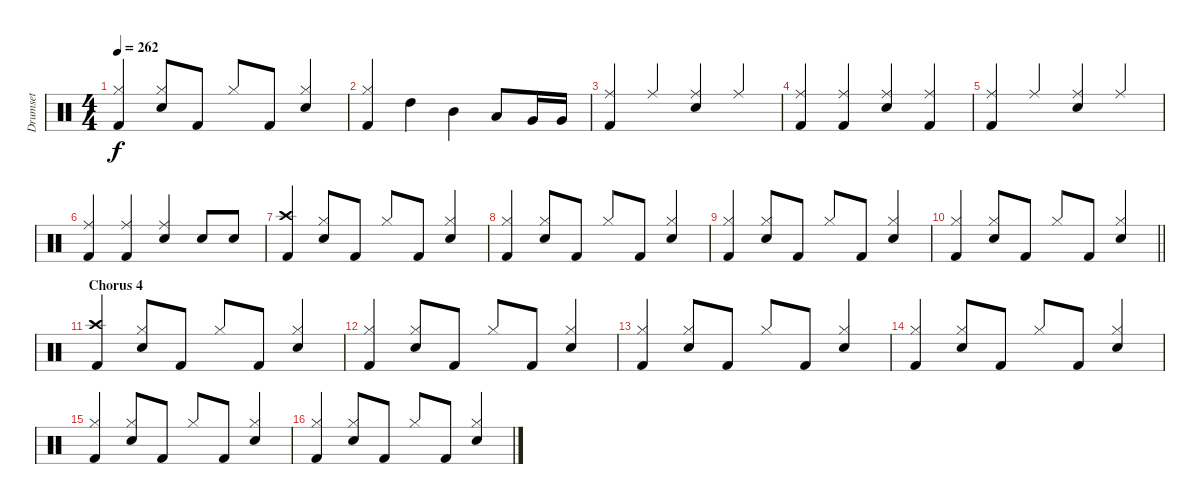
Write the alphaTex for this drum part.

\track ("Drumset" "Drumset") {instrument percussion}
\staff {score}
\articulation defaults
\ts (4 4)
\tempo 262
\clef neutral
\ks c
("Hi-Hat (closed)" "Kick (hit) 2").4{dy f beam Up} ("Hi-Hat (closed)" "Snare (hit) 2").8{beam Up} "Kick (hit) 2".8{beam Up} "Hi-Hat (closed)".8{beam Up} "Kick (hit) 2".8{beam Up} ("Snare (hit) 2" "Hi-Hat (closed)").4{beam Up} |
("Hi-Hat (closed)" "Kick (hit) 2").4{beam Up} "High Tom (hit)".4 "Mid Tom (hit)".4 "Low Tom (hit)".8 "Very Low Tom (hit)".16 "Very Low Tom (hit)".16 |
("Ride (middle)" "Kick (hit) 2").4{beam Up} "Ride (middle)".4{beam Up} ("Ride (middle)" "Snare (hit) 2").4{beam Up} "Ride (middle)".4{beam Up} |
("Ride (middle)" "Kick (hit) 2").4{beam Up} ("Ride (middle)" "Kick (hit) 2").4{beam Up} ("Ride (middle)" "Snare (hit) 2").4{beam Up} ("Ride (middle)" "Kick (hit) 2").4{beam Up} |
("Ride (middle)" "Kick (hit) 2").4{beam Up} "Ride (middle)".4{beam Up} ("Ride (middle)" "Snare (hit) 2").4{beam Up} "Ride (middle)".4{beam Up} |
("Ride (middle)" "Kick (hit) 2").4{beam Up} ("Ride (middle)" "Kick (hit) 2").4{beam Up} ("Ride (middle)" "Snare (hit) 2").4{beam Up} "Snare (hit) 2".8{beam Up} "Snare (hit) 2".8{beam Up} |
("Kick (hit) 2" "Crash high (hit)").4{beam Up} ("Hi-Hat (closed)" "Snare (hit) 2").8{beam Up} "Kick (hit) 2".8{beam Up} "Hi-Hat (closed)".8{beam Up} "Kick (hit) 2".8{beam Up} ("Snare (hit) 2" "Hi-Hat (closed)").4{beam Up} |
("Hi-Hat (closed)" "Kick (hit) 2").4{beam Up} ("Hi-Hat (closed)" "Snare (hit) 2").8{beam Up} "Kick (hit) 2".8{beam Up} "Hi-Hat (closed)".8{beam Up} "Kick (hit) 2".8{beam Up} ("Snare (hit) 2" "Hi-Hat (closed)").4{beam Up} |
("Hi-Hat (closed)" "Kick (hit) 2").4{beam Up} ("Hi-Hat (closed)" "Snare (hit) 2").8{beam Up} "Kick (hit) 2".8{beam Up} "Hi-Hat (closed)".8{beam Up} "Kick (hit) 2".8{beam Up} ("Snare (hit) 2" "Hi-Hat (closed)").4{beam Up} |
\barLineRight lightlight
("Hi-Hat (closed)" "Kick (hit) 2").4{beam Up} ("Hi-Hat (closed)" "Snare (hit) 2").8{beam Up} "Kick (hit) 2".8{beam Up} "Hi-Hat (closed)".8{beam Up} "Kick (hit) 2".8{beam Up} ("Snare (hit) 2" "Hi-Hat (closed)").4{beam Up} |
\section ("" "Chorus 4")
("Crash high (hit)" "Kick (hit) 2").4{beam Up} ("Snare (hit) 2" "Hi-Hat (closed)").8{beam Up} "Kick (hit) 2".8{beam Up} "Hi-Hat (closed)".8{beam Up} "Kick (hit) 2".8{beam Up} ("Snare (hit) 2" "Hi-Hat (closed)").4{beam Up} |
("Hi-Hat (closed)" "Kick (hit) 2").4{beam Up} ("Hi-Hat (closed)" "Snare (hit) 2").8{beam Up} "Kick (hit) 2".8{beam Up} "Hi-Hat (closed)".8{beam Up} "Kick (hit) 2".8{beam Up} ("Snare (hit) 2" "Hi-Hat (closed)").4{beam Up} |
("Hi-Hat (closed)" "Kick (hit) 2").4{beam Up} ("Hi-Hat (closed)" "Snare (hit) 2").8{beam Up} "Kick (hit) 2".8{beam Up} "Hi-Hat (closed)".8{beam Up} "Kick (hit) 2".8{beam Up} ("Snare (hit) 2" "Hi-Hat (closed)").4{beam Up} |
("Hi-Hat (closed)" "Kick (hit) 2").4{beam Up} ("Hi-Hat (closed)" "Snare (hit) 2").8{beam Up} "Kick (hit) 2".8{beam Up} "Hi-Hat (closed)".8{beam Up} "Kick (hit) 2".8{beam Up} ("Snare (hit) 2" "Hi-Hat (closed)").4{beam Up} |
("Hi-Hat (closed)" "Kick (hit) 2").4{beam Up} ("Hi-Hat (closed)" "Snare (hit) 2").8{beam Up} "Kick (hit) 2".8{beam Up} "Hi-Hat (closed)".8{beam Up} "Kick (hit) 2".8{beam Up} ("Snare (hit) 2" "Hi-Hat (closed)").4{beam Up} |
("Hi-Hat (closed)" "Kick (hit) 2").4{beam Up} ("Hi-Hat (closed)" "Snare (hit) 2").8{beam Up} "Kick (hit) 2".8{beam Up} "Hi-Hat (closed)".8{beam Up} "Kick (hit) 2".8{beam Up} ("Snare (hit) 2" "Hi-Hat (closed)").4{beam Up}
